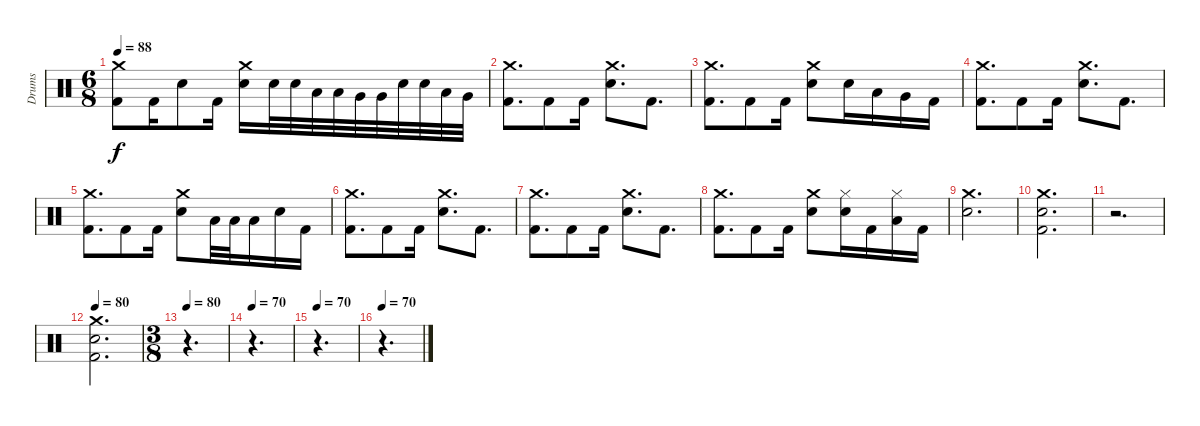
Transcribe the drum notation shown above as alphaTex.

\track ("Drums" "Drums") {instrument percussion}
\staff {score}
\articulation defaults
\ts (6 8)
\tempo 88
\clef neutral
\ks c
("Crash medium (hit)" "Kick (hit) 2").8{dy f} "Kick (hit) 2".16 "Electric Snare (hit)".8 "Kick (hit) 2".16 ("Crash medium (hit)" "Electric Snare (hit)").16 "Electric Snare (hit)".32 "Electric Snare (hit)".32 "Low Tom (hit)".32 "Low Tom (hit)".32 "Very Low Tom (hit)".32 "Very Low Tom (hit)".32 "Electric Snare (hit)".32 "Electric Snare (hit)".32 "Low Tom (hit)".32 "Very Low Tom (hit)".32 |
("Crash medium (hit)" "Kick (hit) 2").8{d} "Kick (hit) 2".8 "Kick (hit) 2".16 ("Crash medium (hit)" "Electric Snare (hit)").8{d} "Kick (hit) 2".8{d} |
("Crash medium (hit)" "Kick (hit) 2").8{d} "Kick (hit) 2".8 "Kick (hit) 2".16 ("Crash medium (hit)" "Electric Snare (hit)").8 "Electric Snare (hit)".16 "Low Tom (hit)".16 "Very Low Tom (hit)".16 "Kick (hit) 2".16 |
("Crash medium (hit)" "Kick (hit) 2").8{d} "Kick (hit) 2".8 "Kick (hit) 2".16 ("Crash medium (hit)" "Electric Snare (hit)").8{d} "Kick (hit) 2".8{d} |
("Crash medium (hit)" "Kick (hit) 2").8{d} "Kick (hit) 2".8 "Kick (hit) 2".16 ("Crash medium (hit)" "Electric Snare (hit)").8 "Low Tom (hit)".32 "Low Tom (hit)".32 "Low Tom (hit)".16 "Electric Snare (hit)".16 "Kick (hit) 2".16 |
("Crash medium (hit)" "Kick (hit) 2").8{d} "Kick (hit) 2".8 "Kick (hit) 2".16 ("Crash medium (hit)" "Electric Snare (hit)").8{d} "Kick (hit) 2".8{d} |
("Crash medium (hit)" "Kick (hit) 2").8{d} "Kick (hit) 2".8 "Kick (hit) 2".16 ("Crash medium (hit)" "Electric Snare (hit)").8{d} "Kick (hit) 2".8{d} |
("Crash medium (hit)" "Kick (hit) 2").8{d} "Kick (hit) 2".8 "Kick (hit) 2".16 ("Crash medium (hit)" "Electric Snare (hit)").8 ("Hi-Hat (closed)" "Electric Snare (hit)").16 "Kick (hit) 2".16 ("Hi-Hat (closed)" "Low Tom (hit)").16 "Kick (hit) 2".16 |
("Crash medium (hit)" "Electric Snare (hit)").2{d} |
("Crash medium (hit)" "Electric Snare (hit)" "Kick (hit) 2").2{d} |
r.2{d} |
\tempo 80
("Crash medium (hit)" "Electric Snare (hit)" "Kick (hit) 2").2{d} |
\ts (3 8)
\tempo 80
r.4{d} |
\tempo 70
r.4{d} |
\tempo 70
r.4{d} |
\tempo 70
r.4{d}
